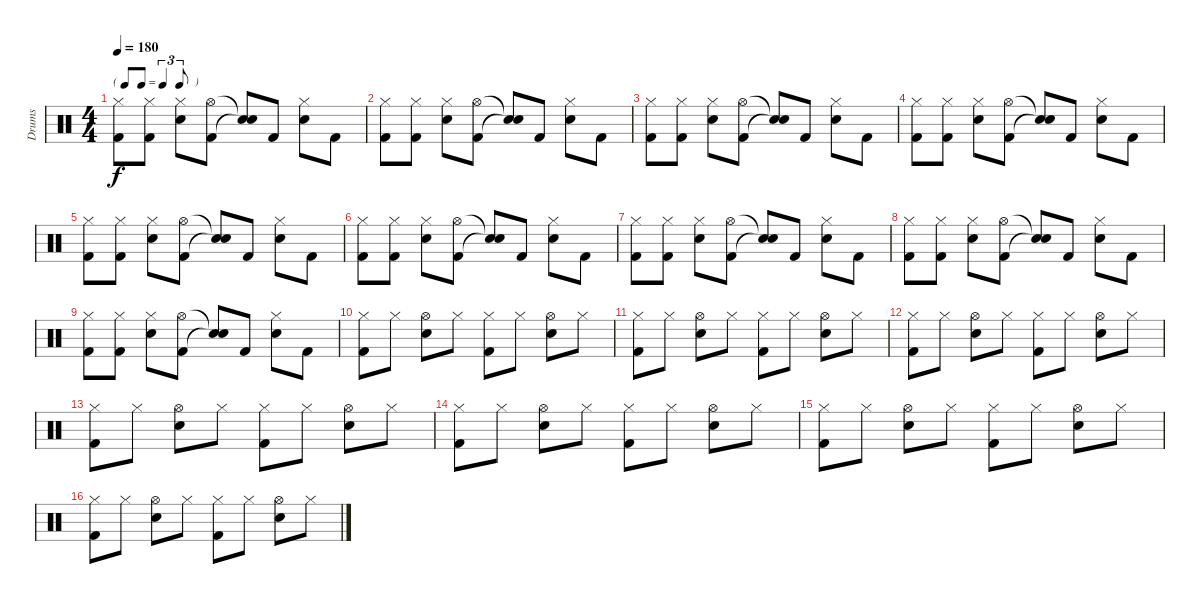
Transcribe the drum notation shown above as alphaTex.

\track ("Drums" "Drums") {instrument percussion}
\staff {score}
\articulation defaults
\ts (4 4)
\tf triplet8th
\tempo 180
\clef neutral
\ks c
("Hi-Hat (closed)" "Kick (hit) 2").8{dy f} ("Hi-Hat (closed)" "Kick (hit) 2").8 ("Hi-Hat (closed)" "Electric Snare (hit)").8 ("Hi-Hat (open)" "Kick (hit) 2").8 ("Snare (hit)"{t} "Snare (hit)"{t}).8 "Kick (hit) 2".8 ("Hi-Hat (closed)" "Electric Snare (hit)").8 "Kick (hit) 2".8 |
("Hi-Hat (closed)" "Kick (hit) 2").8 ("Hi-Hat (closed)" "Kick (hit) 2").8 ("Hi-Hat (closed)" "Electric Snare (hit)").8 ("Hi-Hat (open)" "Kick (hit) 2").8 ("Snare (hit)"{t} "Snare (hit)"{t}).8 "Kick (hit) 2".8 ("Hi-Hat (closed)" "Electric Snare (hit)").8 "Kick (hit) 2".8 |
("Hi-Hat (closed)" "Kick (hit) 2").8 ("Hi-Hat (closed)" "Kick (hit) 2").8 ("Hi-Hat (closed)" "Electric Snare (hit)").8 ("Hi-Hat (open)" "Kick (hit) 2").8 ("Snare (hit)"{t} "Snare (hit)"{t}).8 "Kick (hit) 2".8 ("Hi-Hat (closed)" "Electric Snare (hit)").8 "Kick (hit) 2".8 |
("Hi-Hat (closed)" "Kick (hit) 2").8 ("Hi-Hat (closed)" "Kick (hit) 2").8 ("Hi-Hat (closed)" "Electric Snare (hit)").8 ("Hi-Hat (open)" "Kick (hit) 2").8 ("Snare (hit)"{t} "Snare (hit)"{t}).8 "Kick (hit) 2".8 ("Hi-Hat (closed)" "Electric Snare (hit)").8 "Kick (hit) 2".8 |
("Hi-Hat (closed)" "Kick (hit) 2").8 ("Hi-Hat (closed)" "Kick (hit) 2").8 ("Hi-Hat (closed)" "Electric Snare (hit)").8 ("Hi-Hat (open)" "Kick (hit) 2").8 ("Snare (hit)"{t} "Snare (hit)"{t}).8 "Kick (hit) 2".8 ("Hi-Hat (closed)" "Electric Snare (hit)").8 "Kick (hit) 2".8 |
("Hi-Hat (closed)" "Kick (hit) 2").8 ("Hi-Hat (closed)" "Kick (hit) 2").8 ("Hi-Hat (closed)" "Electric Snare (hit)").8 ("Hi-Hat (open)" "Kick (hit) 2").8 ("Snare (hit)"{t} "Snare (hit)"{t}).8 "Kick (hit) 2".8 ("Hi-Hat (closed)" "Electric Snare (hit)").8 "Kick (hit) 2".8 |
("Hi-Hat (closed)" "Kick (hit) 2").8 ("Hi-Hat (closed)" "Kick (hit) 2").8 ("Hi-Hat (closed)" "Electric Snare (hit)").8 ("Hi-Hat (open)" "Kick (hit) 2").8 ("Snare (hit)"{t} "Snare (hit)"{t}).8 "Kick (hit) 2".8 ("Hi-Hat (closed)" "Electric Snare (hit)").8 "Kick (hit) 2".8 |
("Hi-Hat (closed)" "Kick (hit) 2").8 ("Hi-Hat (closed)" "Kick (hit) 2").8 ("Hi-Hat (closed)" "Electric Snare (hit)").8 ("Hi-Hat (open)" "Kick (hit) 2").8 ("Snare (hit)"{t} "Snare (hit)"{t}).8 "Kick (hit) 2".8 ("Hi-Hat (closed)" "Electric Snare (hit)").8 "Kick (hit) 2".8 |
("Hi-Hat (closed)" "Kick (hit) 2").8 ("Hi-Hat (closed)" "Kick (hit) 2").8 ("Hi-Hat (closed)" "Electric Snare (hit)").8 ("Hi-Hat (open)" "Kick (hit) 2").8 ("Snare (hit)"{t} "Snare (hit)"{t}).8 "Kick (hit) 2".8 ("Hi-Hat (closed)" "Electric Snare (hit)").8 "Kick (hit) 2".8 |
("Hi-Hat (closed)" "Kick (hit) 2").8 "Hi-Hat (closed)".8 ("Hi-Hat (open)" "Snare (hit) 2").8 "Hi-Hat (closed)".8 ("Hi-Hat (closed)" "Kick (hit) 2").8 "Hi-Hat (closed)".8 ("Hi-Hat (open)" "Snare (hit) 2").8 "Hi-Hat (closed)".8 |
("Hi-Hat (closed)" "Kick (hit) 2").8 "Hi-Hat (closed)".8 ("Hi-Hat (open)" "Snare (hit) 2").8 "Hi-Hat (closed)".8 ("Hi-Hat (closed)" "Kick (hit) 2").8 "Hi-Hat (closed)".8 ("Hi-Hat (open)" "Snare (hit) 2").8 "Hi-Hat (closed)".8 |
("Hi-Hat (closed)" "Kick (hit) 2").8 "Hi-Hat (closed)".8 ("Hi-Hat (open)" "Snare (hit) 2").8 "Hi-Hat (closed)".8 ("Hi-Hat (closed)" "Kick (hit) 2").8 "Hi-Hat (closed)".8 ("Hi-Hat (open)" "Snare (hit) 2").8 "Hi-Hat (closed)".8 |
("Hi-Hat (closed)" "Kick (hit) 2").8 "Hi-Hat (closed)".8 ("Hi-Hat (open)" "Snare (hit) 2").8 "Hi-Hat (closed)".8 ("Hi-Hat (closed)" "Kick (hit) 2").8 "Hi-Hat (closed)".8 ("Hi-Hat (open)" "Snare (hit) 2").8 "Hi-Hat (closed)".8 |
("Hi-Hat (closed)" "Kick (hit) 2").8 "Hi-Hat (closed)".8 ("Hi-Hat (open)" "Snare (hit) 2").8 "Hi-Hat (closed)".8 ("Hi-Hat (closed)" "Kick (hit) 2").8 "Hi-Hat (closed)".8 ("Hi-Hat (open)" "Snare (hit) 2").8 "Hi-Hat (closed)".8 |
("Hi-Hat (closed)" "Kick (hit) 2").8 "Hi-Hat (closed)".8 ("Hi-Hat (open)" "Snare (hit) 2").8 "Hi-Hat (closed)".8 ("Hi-Hat (closed)" "Kick (hit) 2").8 "Hi-Hat (closed)".8 ("Hi-Hat (open)" "Snare (hit) 2").8 "Hi-Hat (closed)".8 |
("Hi-Hat (closed)" "Kick (hit) 2").8 "Hi-Hat (closed)".8 ("Hi-Hat (open)" "Snare (hit) 2").8 "Hi-Hat (closed)".8 ("Hi-Hat (closed)" "Kick (hit) 2").8 "Hi-Hat (closed)".8 ("Hi-Hat (open)" "Snare (hit) 2").8 "Hi-Hat (closed)".8
